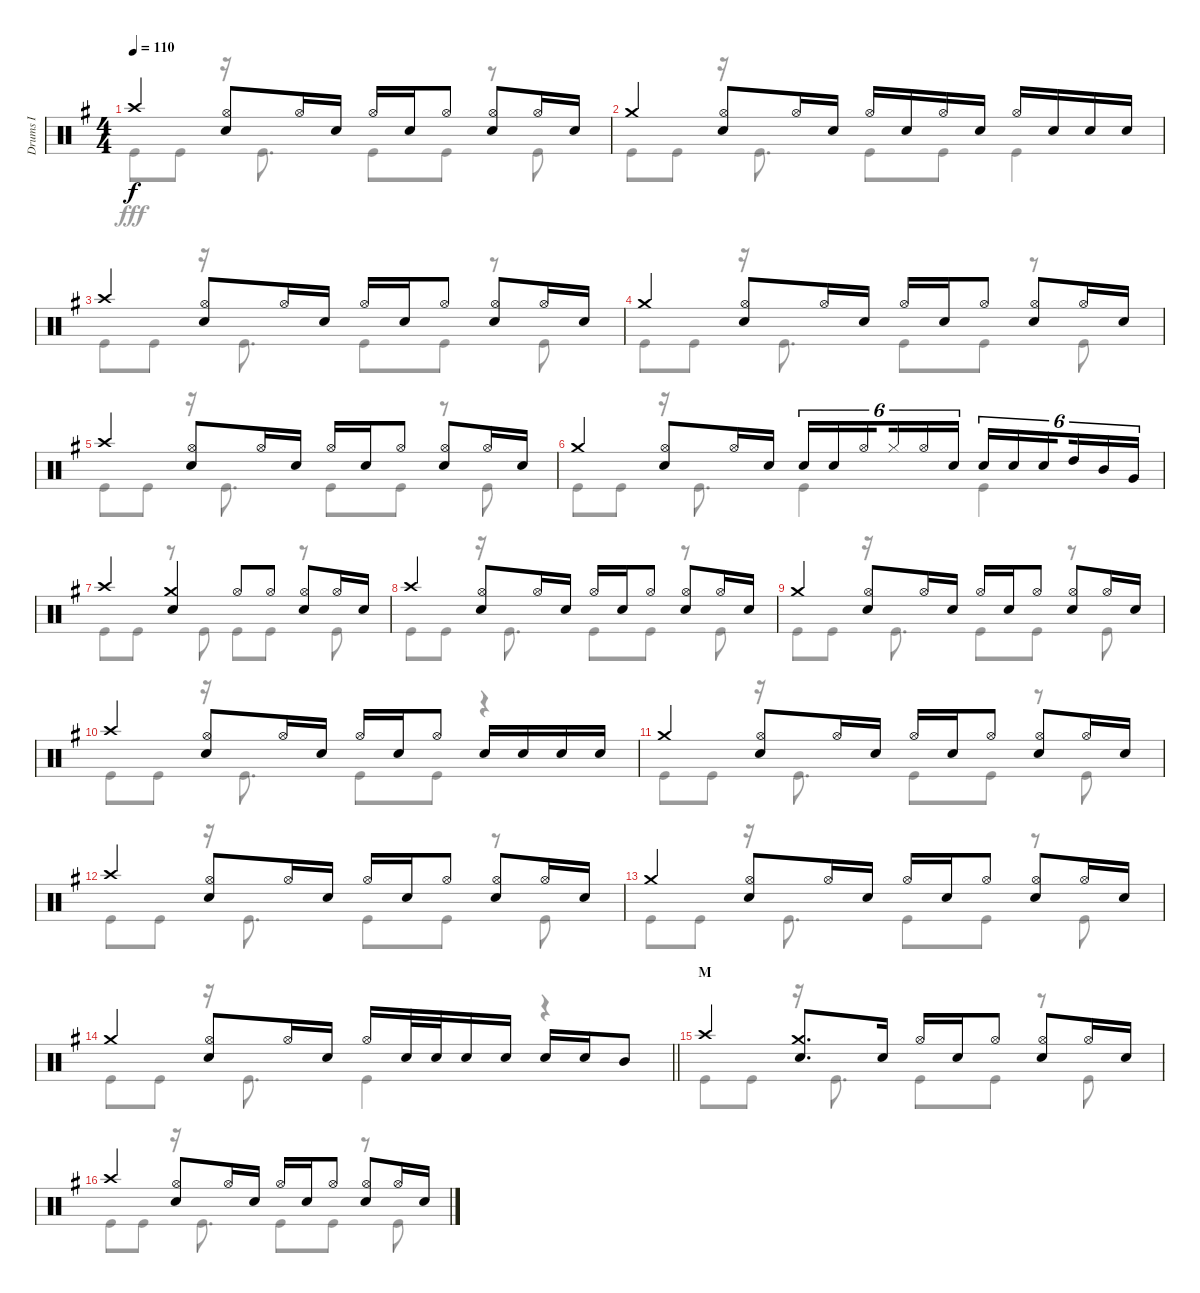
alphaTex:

\track ("Drums I" "Drums I") {instrument percussion}
\staff {score}
\articulation defaults
\voice
\ts (4 4)
\tempo 110
\clef neutral
\ks g "Crash high (hit)".4{dy f}
("Hi-Hat (open)" "Snare (hit) 2").8 "Hi-Hat (open)".16 "Snare (hit) 2".16 "Hi-Hat (open)".16 "Snare (hit) 2".16 "Hi-Hat (open)".8 ("Hi-Hat (open)" "Snare (hit) 2").8 "Hi-Hat (open)".16 "Snare (hit) 2".16 |
"Crash medium (hit)".4 ("Hi-Hat (open)" "Snare (hit) 2").8 "Hi-Hat (open)".16 "Snare (hit) 2".16 "Hi-Hat (open)".16 "Snare (hit) 2".16 "Hi-Hat (open)".16 "Snare (hit) 2".16 "Hi-Hat (open)".16 "Snare (hit) 2".16 "Snare (hit) 2".16 "Snare (hit) 2".16 |
"Crash high (hit)".4 ("Hi-Hat (open)" "Snare (hit) 2").8 "Hi-Hat (open)".16 "Snare (hit) 2".16 "Hi-Hat (open)".16 "Snare (hit) 2".16 "Hi-Hat (open)".8 ("Hi-Hat (open)" "Snare (hit) 2").8 "Hi-Hat (open)".16 "Snare (hit) 2".16 |
"Crash medium (hit)".4 ("Hi-Hat (open)" "Snare (hit) 2").8 "Hi-Hat (open)".16 "Snare (hit) 2".16 "Hi-Hat (open)".16 "Snare (hit) 2".16 "Hi-Hat (open)".8 ("Hi-Hat (open)" "Snare (hit) 2").8 "Hi-Hat (open)".16 "Snare (hit) 2".16 |
"Crash high (hit)".4 ("Hi-Hat (open)" "Snare (hit) 2").8 "Hi-Hat (open)".16 "Snare (hit) 2".16 "Hi-Hat (open)".16 "Snare (hit) 2".16 "Hi-Hat (open)".8 ("Hi-Hat (open)" "Snare (hit) 2").8 "Hi-Hat (open)".16 "Snare (hit) 2".16 |
"Crash medium (hit)".4 ("Hi-Hat (open)" "Snare (hit) 2").8 "Hi-Hat (open)".16 "Snare (hit) 2".16 "Snare (hit) 2".16{tu (6 4)} "Snare (hit) 2".16{tu (6 4)} "Hi-Hat (open)".16{tu (6 4) beam splitsecondary} "Hi-Hat (closed)".16{tu (6 4)} "Hi-Hat (open)".16{tu (6 4)} "Snare (hit) 2".16{tu (6 4)} "Snare (hit) 2".16{tu (6 4)} "Snare (hit) 2".16{tu (6 4)} "Snare (hit) 2".16{tu (6 4) beam splitsecondary} "High Tom (hit)".16{tu (6 4)} "Mid Tom (hit)".16{tu (6 4)} "Very Low Tom (hit)".16{tu (6 4)} |
"Crash high (hit)".4 ("Crash medium (hit)" "Snare (hit) 2").4 "Hi-Hat (open)".8 "Hi-Hat (open)".8 ("Hi-Hat (open)" "Snare (hit) 2").8 "Hi-Hat (open)".16 "Snare (hit) 2".16 |
"Crash high (hit)".4 ("Hi-Hat (open)" "Snare (hit) 2").8 "Hi-Hat (open)".16 "Snare (hit) 2".16 "Hi-Hat (open)".16 "Snare (hit) 2".16 "Hi-Hat (open)".8 ("Hi-Hat (open)" "Snare (hit) 2").8 "Hi-Hat (open)".16 "Snare (hit) 2".16 |
"Crash medium (hit)".4 ("Hi-Hat (open)" "Snare (hit) 2").8 "Hi-Hat (open)".16 "Snare (hit) 2".16 "Hi-Hat (open)".16 "Snare (hit) 2".16 "Hi-Hat (open)".8 ("Hi-Hat (open)" "Snare (hit) 2").8 "Hi-Hat (open)".16 "Snare (hit) 2".16 |
"Crash high (hit)".4 ("Hi-Hat (open)" "Snare (hit) 2").8 "Hi-Hat (open)".16 "Snare (hit) 2".16 "Hi-Hat (open)".16 "Snare (hit) 2".16 "Hi-Hat (open)".8 "Snare (hit) 2".16 "Snare (hit) 2".16 "Snare (hit) 2".16 "Snare (hit) 2".16 |
"Crash medium (hit)".4 ("Hi-Hat (open)" "Snare (hit) 2").8 "Hi-Hat (open)".16 "Snare (hit) 2".16 "Hi-Hat (open)".16 "Snare (hit) 2".16 "Hi-Hat (open)".8 ("Hi-Hat (open)" "Snare (hit) 2").8 "Hi-Hat (open)".16 "Snare (hit) 2".16 |
"Crash high (hit)".4 ("Hi-Hat (open)" "Snare (hit) 2").8 "Hi-Hat (open)".16 "Snare (hit) 2".16 "Hi-Hat (open)".16 "Snare (hit) 2".16 "Hi-Hat (open)".8 ("Hi-Hat (open)" "Snare (hit) 2").8 "Hi-Hat (open)".16 "Snare (hit) 2".16 |
"Crash medium (hit)".4 ("Hi-Hat (open)" "Snare (hit) 2").8 "Hi-Hat (open)".16 "Snare (hit) 2".16 "Hi-Hat (open)".16 "Snare (hit) 2".16 "Hi-Hat (open)".8 ("Hi-Hat (open)" "Snare (hit) 2").8 "Hi-Hat (open)".16 "Snare (hit) 2".16 |
\barLineRight lightlight "Crash medium (hit)".4
("Hi-Hat (open)" "Snare (hit) 2").8 "Hi-Hat (open)".16 "Snare (hit) 2".16 "Hi-Hat (open)".16 "Snare (hit) 2".32 "Snare (hit) 2".32 "Snare (hit) 2".16 "Snare (hit) 2".16 "Snare (hit) 2".16 "Snare (hit) 2".16 "Mid Tom (hit)".8 |
\section ("" "M")
"Crash high (hit)".4 ("Crash medium (hit)" "Snare (hit) 2").8{d} "Snare (hit) 2".16 "Hi-Hat (open)".16 "Snare (hit) 2".16 "Hi-Hat (open)".8 ("Hi-Hat (open)" "Snare (hit) 2").8 "Hi-Hat (open)".16 "Snare (hit) 2".16 |
"Crash high (hit)".4 ("Hi-Hat (open)" "Snare (hit) 2").8 "Hi-Hat (open)".16 "Snare (hit) 2".16 "Hi-Hat (open)".16 "Snare (hit) 2".16 "Hi-Hat (open)".8 ("Hi-Hat (open)" "Snare (hit) 2").8 "Hi-Hat (open)".16 "Snare (hit) 2".16
\voice
\clef neutral
\ottava regular
\simile none
\ks g "Kick (hit)".8{dy fff} "Kick (hit)".8
r.16 "Kick (hit)".8{d} "Kick (hit)".8 "Kick (hit)".8 r.8 "Kick (hit)".8 |
"Kick (hit)".8 "Kick (hit)".8 r.16 "Kick (hit)".8{d} "Kick (hit)".8 "Kick (hit)".8 "Kick (hit)".4 |
"Kick (hit)".8 "Kick (hit)".8 r.16 "Kick (hit)".8{d} "Kick (hit)".8 "Kick (hit)".8 r.8 "Kick (hit)".8 |
"Kick (hit)".8 "Kick (hit)".8 r.16 "Kick (hit)".8{d} "Kick (hit)".8 "Kick (hit)".8 r.8 "Kick (hit)".8 |
"Kick (hit)".8 "Kick (hit)".8 r.16 "Kick (hit)".8{d} "Kick (hit)".8 "Kick (hit)".8 r.8 "Kick (hit)".8 |
"Kick (hit)".8 "Kick (hit)".8 r.16 "Kick (hit)".8{d} "Kick (hit)".4 "Kick (hit)".4 |
"Kick (hit)".8 "Kick (hit)".8 r.8 "Kick (hit)".8 "Kick (hit)".8 "Kick (hit)".8 r.8 "Kick (hit)".8 |
"Kick (hit)".8 "Kick (hit)".8 r.16 "Kick (hit)".8{d} "Kick (hit)".8 "Kick (hit)".8 r.8 "Kick (hit)".8 |
"Kick (hit)".8 "Kick (hit)".8 r.16 "Kick (hit)".8{d} "Kick (hit)".8 "Kick (hit)".8 r.8 "Kick (hit)".8 |
"Kick (hit)".8 "Kick (hit)".8 r.16 "Kick (hit)".8{d} "Kick (hit)".8 "Kick (hit)".8 r.4 |
"Kick (hit)".8 "Kick (hit)".8 r.16 "Kick (hit)".8{d} "Kick (hit)".8 "Kick (hit)".8 r.8 "Kick (hit)".8 |
"Kick (hit)".8 "Kick (hit)".8 r.16 "Kick (hit)".8{d} "Kick (hit)".8 "Kick (hit)".8 r.8 "Kick (hit)".8 |
"Kick (hit)".8 "Kick (hit)".8 r.16 "Kick (hit)".8{d} "Kick (hit)".8 "Kick (hit)".8 r.8 "Kick (hit)".8 |
\barLineRight lightlight "Kick (hit)".8 "Kick (hit)".8
r.16 "Kick (hit)".8{d} "Kick (hit)".4 r.4 |
"Kick (hit)".8 "Kick (hit)".8 r.16 "Kick (hit)".8{d} "Kick (hit)".8 "Kick (hit)".8 r.8 "Kick (hit)".8 |
"Kick (hit)".8 "Kick (hit)".8 r.16 "Kick (hit)".8{d} "Kick (hit)".8 "Kick (hit)".8 r.8 "Kick (hit)".8
